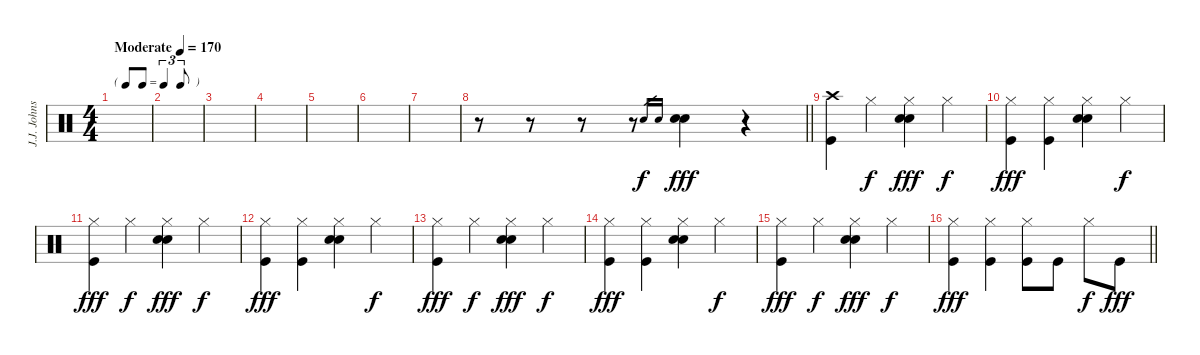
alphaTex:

\track ("J.J. Johnson" "J.J. Johns") {instrument percussion}
\staff {score}
\articulation defaults
\ts (4 4)
\tf triplet8th
\tempo (170 "Moderate")
\clef neutral
\ks c
|
|
|
|
|
|
|
\barLineRight lightlight
r.8 r.8 r.8 r.8 "Snare (hit) 2".16{gr} "Electric Snare (hit)".16{gr} ("Snare (hit) 2" "Electric Snare (hit)").4{dy fff} r.4 |
("Crash high (hit)" "Kick (hit)").4 "Hi-Hat (closed)".4{dy f} ("Hi-Hat (closed)" "Electric Snare (hit)" "Snare (hit) 2").4{dy fff} "Hi-Hat (closed)".4{dy f} |
("Hi-Hat (closed)" "Kick (hit)").4{dy fff} ("Hi-Hat (closed)" "Kick (hit)").4 ("Hi-Hat (closed)" "Snare (hit) 2" "Electric Snare (hit)").4 "Hi-Hat (closed)".4{dy f} |
("Hi-Hat (closed)" "Kick (hit)").4{dy fff} "Hi-Hat (closed)".4{dy f} ("Hi-Hat (closed)" "Electric Snare (hit)" "Snare (hit) 2").4{dy fff} "Hi-Hat (closed)".4{dy f} |
("Hi-Hat (closed)" "Kick (hit)").4{dy fff} ("Hi-Hat (closed)" "Kick (hit)").4 ("Hi-Hat (closed)" "Snare (hit) 2" "Electric Snare (hit)").4 "Hi-Hat (closed)".4{dy f} |
("Hi-Hat (closed)" "Kick (hit)").4{dy fff} "Hi-Hat (closed)".4{dy f} ("Hi-Hat (closed)" "Electric Snare (hit)" "Snare (hit) 2").4{dy fff} "Hi-Hat (closed)".4{dy f} |
("Hi-Hat (closed)" "Kick (hit)").4{dy fff} ("Hi-Hat (closed)" "Kick (hit)").4 ("Hi-Hat (closed)" "Snare (hit) 2" "Electric Snare (hit)").4 "Hi-Hat (closed)".4{dy f} |
("Hi-Hat (closed)" "Kick (hit)").4{dy fff} "Hi-Hat (closed)".4{dy f} ("Hi-Hat (closed)" "Electric Snare (hit)" "Snare (hit) 2").4{dy fff} "Hi-Hat (closed)".4{dy f} |
\barLineRight lightlight
("Hi-Hat (closed)" "Kick (hit)").4{dy fff} ("Hi-Hat (closed)" "Kick (hit)").4 ("Hi-Hat (closed)" "Kick (hit)").8 "Kick (hit)".8 "Hi-Hat (closed)".8{dy f} "Kick (hit)".8{dy fff}
